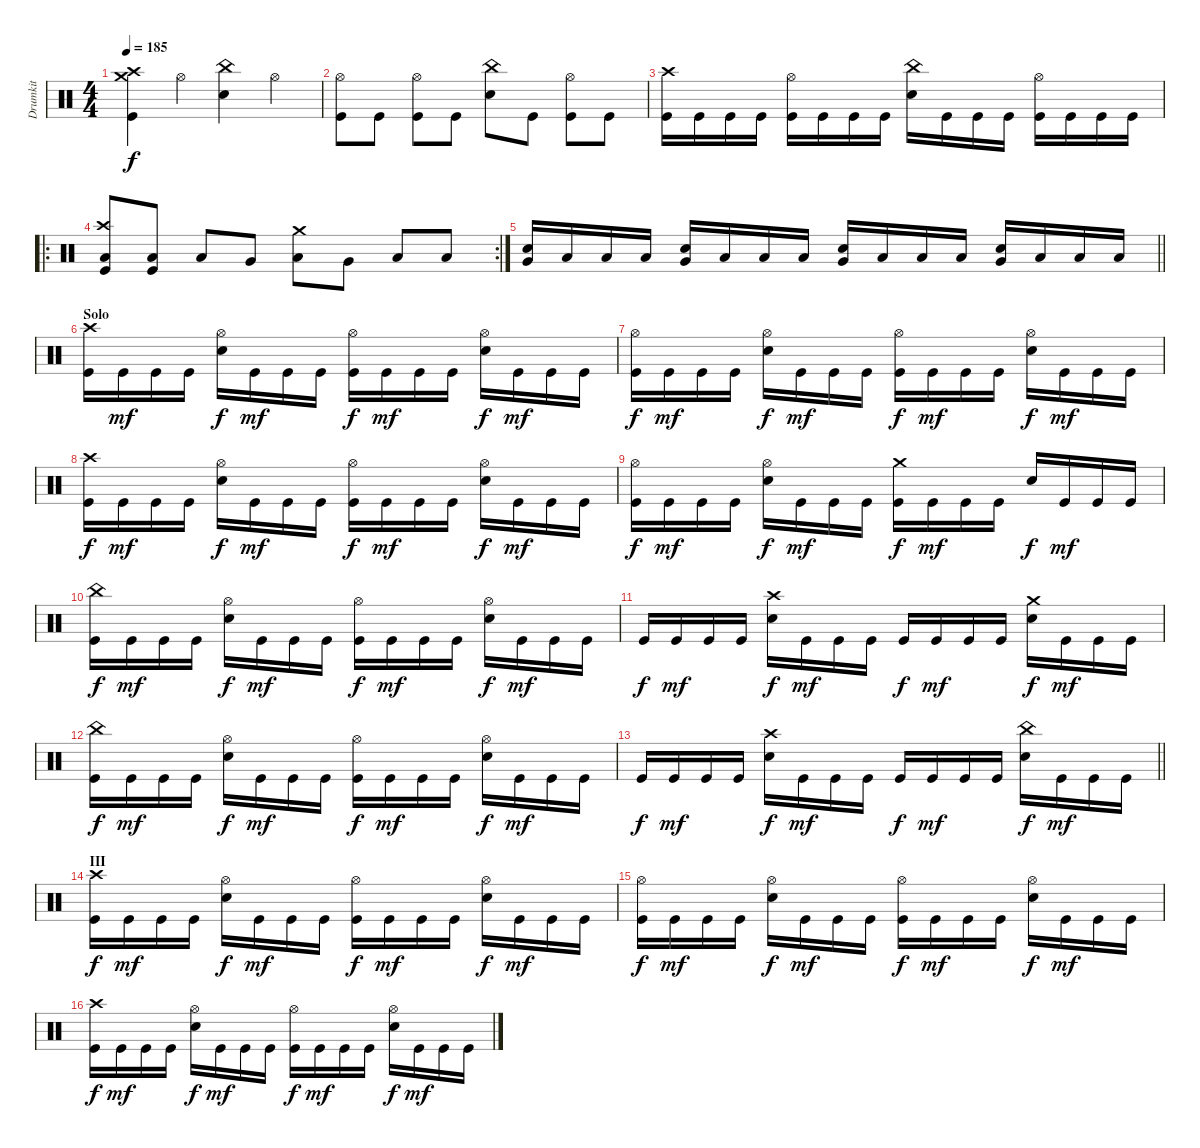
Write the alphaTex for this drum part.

\track ("Drumkit" "Drumkit") {instrument percussion}
\staff {score}
\articulation defaults
\ts (4 4)
\tempo 185
\clef neutral
\ks c
("Kick (hit)" "Crash high (hit)" "Crash medium (hit)").4{dy f} "Hi-Hat (open)".4 ("Snare (hit) 2" "China (hit)").4 "Hi-Hat (open)".4 |
("Kick (hit)" "Hi-Hat (open)").8 "Kick (hit)".8 ("Kick (hit)" "Hi-Hat (open)").8 "Kick (hit)".8 ("Snare (hit) 2" "China (hit)").8 "Kick (hit)".8 ("Kick (hit)" "Hi-Hat (open)").8 "Kick (hit)".8 |
("Kick (hit)" "Crash high (hit)").16 "Kick (hit)".16 "Kick (hit)".16 "Kick (hit)".16 ("Kick (hit)" "Hi-Hat (open)").16 "Kick (hit)".16 "Kick (hit)".16 "Kick (hit)".16 ("Snare (hit) 2" "China (hit)").16 "Kick (hit)".16 "Kick (hit)".16 "Kick (hit)".16 ("Kick (hit)" "Hi-Hat (open)").16 "Kick (hit)".16 "Kick (hit)".16 "Kick (hit)".16 |
\ro
\rc 2
("Low Floor Tom (hit)" "Kick (hit)" "Crash high (hit)").8 ("Low Floor Tom (hit)" "Kick (hit)").8 "Low Floor Tom (hit)".8 "Very Low Tom (hit)".8 ("Low Tom (hit)" "Crash medium (hit)").8 "Very Low Tom (hit)".8 "Low Floor Tom (hit)".8 "Low Floor Tom (hit)".8 |
\barLineRight lightlight
("Very Low Tom (hit)" "Snare (hit) 2").16 "Low Floor Tom (hit)".16 "Low Floor Tom (hit)".16 "Low Floor Tom (hit)".16 ("Very Low Tom (hit)" "Snare (hit) 2").16 "Low Floor Tom (hit)".16 "Low Floor Tom (hit)".16 "Low Floor Tom (hit)".16 ("Very Low Tom (hit)" "Snare (hit) 2").16 "Low Floor Tom (hit)".16 "Low Floor Tom (hit)".16 "Low Floor Tom (hit)".16 ("Very Low Tom (hit)" "Snare (hit) 2").16 "Low Floor Tom (hit)".16 "Low Floor Tom (hit)".16 "Low Floor Tom (hit)".16 |
\section ("" "Solo")
("Kick (hit)" "Crash high (hit)").16 "Kick (hit)".16{dy mf} "Kick (hit)".16 "Kick (hit)".16 ("Snare (hit) 2" "Hi-Hat (open)").16{dy f} "Kick (hit)".16{dy mf} "Kick (hit)".16 "Kick (hit)".16 ("Kick (hit)" "Hi-Hat (open)").16{dy f} "Kick (hit)".16{dy mf} "Kick (hit)".16 "Kick (hit)".16 ("Snare (hit) 2" "Hi-Hat (open)").16{dy f} "Kick (hit)".16{dy mf} "Kick (hit)".16 "Kick (hit)".16 |
("Kick (hit)" "Hi-Hat (open)").16{dy f} "Kick (hit)".16{dy mf} "Kick (hit)".16 "Kick (hit)".16 ("Snare (hit) 2" "Hi-Hat (open)").16{dy f} "Kick (hit)".16{dy mf} "Kick (hit)".16 "Kick (hit)".16 ("Kick (hit)" "Hi-Hat (open)").16{dy f} "Kick (hit)".16{dy mf} "Kick (hit)".16 "Kick (hit)".16 ("Snare (hit) 2" "Hi-Hat (open)").16{dy f} "Kick (hit)".16{dy mf} "Kick (hit)".16 "Kick (hit)".16 |
("Kick (hit)" "Crash high (hit)").16{dy f} "Kick (hit)".16{dy mf} "Kick (hit)".16 "Kick (hit)".16 ("Snare (hit) 2" "Hi-Hat (open)").16{dy f} "Kick (hit)".16{dy mf} "Kick (hit)".16 "Kick (hit)".16 ("Kick (hit)" "Hi-Hat (open)").16{dy f} "Kick (hit)".16{dy mf} "Kick (hit)".16 "Kick (hit)".16 ("Snare (hit) 2" "Hi-Hat (open)").16{dy f} "Kick (hit)".16{dy mf} "Kick (hit)".16 "Kick (hit)".16 |
("Kick (hit)" "Hi-Hat (open)").16{dy f} "Kick (hit)".16{dy mf} "Kick (hit)".16 "Kick (hit)".16 ("Snare (hit) 2" "Hi-Hat (open)").16{dy f} "Kick (hit)".16{dy mf} "Kick (hit)".16 "Kick (hit)".16 ("Kick (hit)" "Crash medium (hit)").16{dy f} "Kick (hit)".16{dy mf} "Kick (hit)".16 "Kick (hit)".16 "Snare (hit) 2".16{dy f} "Kick (hit)".16{dy mf} "Kick (hit)".16 "Kick (hit)".16 |
("Kick (hit)" "China (hit)").16{dy f} "Kick (hit)".16{dy mf} "Kick (hit)".16 "Kick (hit)".16 ("Snare (hit) 2" "Hi-Hat (open)").16{dy f} "Kick (hit)".16{dy mf} "Kick (hit)".16 "Kick (hit)".16 ("Kick (hit)" "Hi-Hat (open)").16{dy f} "Kick (hit)".16{dy mf} "Kick (hit)".16 "Kick (hit)".16 ("Snare (hit) 2" "Hi-Hat (open)").16{dy f} "Kick (hit)".16{dy mf} "Kick (hit)".16 "Kick (hit)".16 |
"Kick (hit)".16{dy f} "Kick (hit)".16{dy mf} "Kick (hit)".16 "Kick (hit)".16 ("Snare (hit) 2" "Crash high (hit)").16{dy f} "Kick (hit)".16{dy mf} "Kick (hit)".16 "Kick (hit)".16 "Kick (hit)".16{dy f} "Kick (hit)".16{dy mf} "Kick (hit)".16 "Kick (hit)".16 ("Snare (hit) 2" "Crash medium (hit)").16{dy f} "Kick (hit)".16{dy mf} "Kick (hit)".16 "Kick (hit)".16 |
("Kick (hit)" "China (hit)").16{dy f} "Kick (hit)".16{dy mf} "Kick (hit)".16 "Kick (hit)".16 ("Snare (hit) 2" "Hi-Hat (open)").16{dy f} "Kick (hit)".16{dy mf} "Kick (hit)".16 "Kick (hit)".16 ("Kick (hit)" "Hi-Hat (open)").16{dy f} "Kick (hit)".16{dy mf} "Kick (hit)".16 "Kick (hit)".16 ("Snare (hit) 2" "Hi-Hat (open)").16{dy f} "Kick (hit)".16{dy mf} "Kick (hit)".16 "Kick (hit)".16 |
\barLineRight lightlight "Kick (hit)".16{dy f} "Kick (hit)".16{dy mf} "Kick (hit)".16 "Kick (hit)".16
("Snare (hit) 2" "Crash high (hit)").16{dy f} "Kick (hit)".16{dy mf} "Kick (hit)".16 "Kick (hit)".16 "Kick (hit)".16{dy f} "Kick (hit)".16{dy mf} "Kick (hit)".16 "Kick (hit)".16 ("Snare (hit) 2" "China (hit)").16{dy f} "Kick (hit)".16{dy mf} "Kick (hit)".16 "Kick (hit)".16 |
\section ("" "III")
("Kick (hit)" "Crash high (hit)").16{dy f} "Kick (hit)".16{dy mf} "Kick (hit)".16 "Kick (hit)".16 ("Snare (hit) 2" "Hi-Hat (open)").16{dy f} "Kick (hit)".16{dy mf} "Kick (hit)".16 "Kick (hit)".16 ("Kick (hit)" "Hi-Hat (open)").16{dy f} "Kick (hit)".16{dy mf} "Kick (hit)".16 "Kick (hit)".16 ("Snare (hit) 2" "Hi-Hat (open)").16{dy f} "Kick (hit)".16{dy mf} "Kick (hit)".16 "Kick (hit)".16 |
("Kick (hit)" "Hi-Hat (open)").16{dy f} "Kick (hit)".16{dy mf} "Kick (hit)".16 "Kick (hit)".16 ("Snare (hit) 2" "Hi-Hat (open)").16{dy f} "Kick (hit)".16{dy mf} "Kick (hit)".16 "Kick (hit)".16 ("Kick (hit)" "Hi-Hat (open)").16{dy f} "Kick (hit)".16{dy mf} "Kick (hit)".16 "Kick (hit)".16 ("Snare (hit) 2" "Hi-Hat (open)").16{dy f} "Kick (hit)".16{dy mf} "Kick (hit)".16 "Kick (hit)".16 |
("Kick (hit)" "Crash high (hit)").16{dy f} "Kick (hit)".16{dy mf} "Kick (hit)".16 "Kick (hit)".16 ("Snare (hit) 2" "Hi-Hat (open)").16{dy f} "Kick (hit)".16{dy mf} "Kick (hit)".16 "Kick (hit)".16 ("Kick (hit)" "Hi-Hat (open)").16{dy f} "Kick (hit)".16{dy mf} "Kick (hit)".16 "Kick (hit)".16 ("Snare (hit) 2" "Hi-Hat (open)").16{dy f} "Kick (hit)".16{dy mf} "Kick (hit)".16 "Kick (hit)".16
